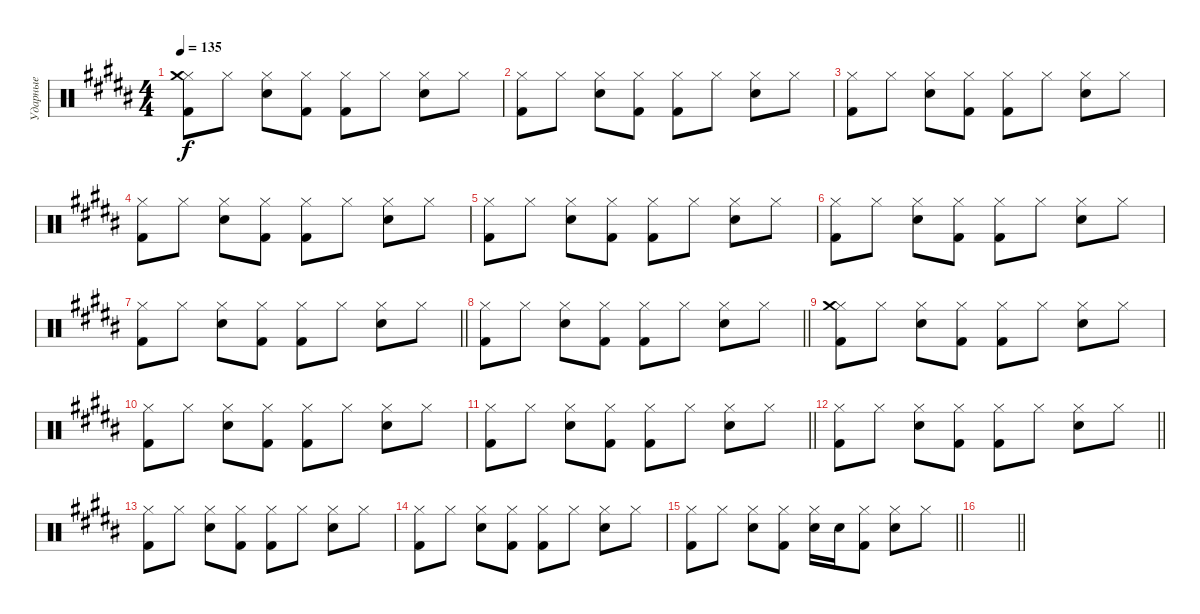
\track ("Ударные" "Ударные") {instrument percussion}
\staff {score}
\articulation defaults
\ts (4 4)
\tempo 135
\clef neutral
\ks g#minor
("Hi-Hat (closed)" "Crash medium (hit)" "Kick (hit) 2").8{dy f} "Hi-Hat (closed)".8 ("Hi-Hat (closed)" "Electric Snare (hit)").8 ("Hi-Hat (closed)" "Kick (hit) 2").8 ("Hi-Hat (closed)" "Kick (hit) 2").8 "Hi-Hat (closed)".8 ("Hi-Hat (closed)" "Electric Snare (hit)").8 "Hi-Hat (closed)".8 |
("Hi-Hat (closed)" "Kick (hit) 2").8 "Hi-Hat (closed)".8 ("Hi-Hat (closed)" "Electric Snare (hit)").8 ("Hi-Hat (closed)" "Kick (hit) 2").8 ("Hi-Hat (closed)" "Kick (hit) 2").8 "Hi-Hat (closed)".8 ("Hi-Hat (closed)" "Electric Snare (hit)").8 "Hi-Hat (closed)".8 |
("Hi-Hat (closed)" "Kick (hit) 2").8 "Hi-Hat (closed)".8 ("Hi-Hat (closed)" "Electric Snare (hit)").8 ("Hi-Hat (closed)" "Kick (hit) 2").8 ("Hi-Hat (closed)" "Kick (hit) 2").8 "Hi-Hat (closed)".8 ("Hi-Hat (closed)" "Electric Snare (hit)").8 "Hi-Hat (closed)".8 |
("Hi-Hat (closed)" "Kick (hit) 2").8 "Hi-Hat (closed)".8 ("Hi-Hat (closed)" "Electric Snare (hit)").8 ("Hi-Hat (closed)" "Kick (hit) 2").8 ("Hi-Hat (closed)" "Kick (hit) 2").8 "Hi-Hat (closed)".8 ("Hi-Hat (closed)" "Electric Snare (hit)").8 "Hi-Hat (closed)".8 |
("Hi-Hat (closed)" "Kick (hit) 2").8 "Hi-Hat (closed)".8 ("Hi-Hat (closed)" "Electric Snare (hit)").8 ("Hi-Hat (closed)" "Kick (hit) 2").8 ("Hi-Hat (closed)" "Kick (hit) 2").8 "Hi-Hat (closed)".8 ("Hi-Hat (closed)" "Electric Snare (hit)").8 "Hi-Hat (closed)".8 |
("Hi-Hat (closed)" "Kick (hit) 2").8 "Hi-Hat (closed)".8 ("Hi-Hat (closed)" "Electric Snare (hit)").8 ("Hi-Hat (closed)" "Kick (hit) 2").8 ("Hi-Hat (closed)" "Kick (hit) 2").8 "Hi-Hat (closed)".8 ("Hi-Hat (closed)" "Electric Snare (hit)").8 "Hi-Hat (closed)".8 |
\barLineRight lightlight
("Hi-Hat (closed)" "Kick (hit) 2").8 "Hi-Hat (closed)".8 ("Hi-Hat (closed)" "Electric Snare (hit)").8 ("Hi-Hat (closed)" "Kick (hit) 2").8 ("Hi-Hat (closed)" "Kick (hit) 2").8 "Hi-Hat (closed)".8 ("Hi-Hat (closed)" "Electric Snare (hit)").8 "Hi-Hat (closed)".8 |
\barLineRight lightlight
("Hi-Hat (closed)" "Kick (hit) 2").8 "Hi-Hat (closed)".8 ("Hi-Hat (closed)" "Electric Snare (hit)").8 ("Hi-Hat (closed)" "Kick (hit) 2").8 ("Hi-Hat (closed)" "Kick (hit) 2").8 "Hi-Hat (closed)".8 ("Hi-Hat (closed)" "Electric Snare (hit)").8 "Hi-Hat (closed)".8 |
\section ("" "")
("Hi-Hat (closed)" "Crash medium (hit)" "Kick (hit) 2").8 "Hi-Hat (closed)".8 ("Hi-Hat (closed)" "Electric Snare (hit)").8 ("Hi-Hat (closed)" "Kick (hit) 2").8 ("Hi-Hat (closed)" "Kick (hit) 2").8 "Hi-Hat (closed)".8 ("Hi-Hat (closed)" "Electric Snare (hit)").8 "Hi-Hat (closed)".8 |
("Hi-Hat (closed)" "Kick (hit) 2").8 "Hi-Hat (closed)".8 ("Hi-Hat (closed)" "Electric Snare (hit)").8 ("Hi-Hat (closed)" "Kick (hit) 2").8 ("Hi-Hat (closed)" "Kick (hit) 2").8 "Hi-Hat (closed)".8 ("Hi-Hat (closed)" "Electric Snare (hit)").8 "Hi-Hat (closed)".8 |
\barLineRight lightlight
("Hi-Hat (closed)" "Kick (hit) 2").8 "Hi-Hat (closed)".8 ("Hi-Hat (closed)" "Electric Snare (hit)").8 ("Hi-Hat (closed)" "Kick (hit) 2").8 ("Hi-Hat (closed)" "Kick (hit) 2").8 "Hi-Hat (closed)".8 ("Hi-Hat (closed)" "Electric Snare (hit)").8 "Hi-Hat (closed)".8 |
\barLineRight lightlight
("Hi-Hat (closed)" "Kick (hit) 2").8 "Hi-Hat (closed)".8 ("Hi-Hat (closed)" "Electric Snare (hit)").8 ("Hi-Hat (closed)" "Kick (hit) 2").8 ("Hi-Hat (closed)" "Kick (hit) 2").8 "Hi-Hat (closed)".8 ("Hi-Hat (closed)" "Electric Snare (hit)").8 "Hi-Hat (closed)".8 |
("Hi-Hat (closed)" "Kick (hit) 2").8 "Hi-Hat (closed)".8 ("Hi-Hat (closed)" "Electric Snare (hit)").8 ("Hi-Hat (closed)" "Kick (hit) 2").8 ("Hi-Hat (closed)" "Kick (hit) 2").8 "Hi-Hat (closed)".8 ("Hi-Hat (closed)" "Electric Snare (hit)").8 "Hi-Hat (closed)".8 |
("Hi-Hat (closed)" "Kick (hit) 2").8 "Hi-Hat (closed)".8 ("Hi-Hat (closed)" "Electric Snare (hit)").8 ("Hi-Hat (closed)" "Kick (hit) 2").8 ("Hi-Hat (closed)" "Kick (hit) 2").8 "Hi-Hat (closed)".8 ("Hi-Hat (closed)" "Electric Snare (hit)").8 "Hi-Hat (closed)".8 |
\barLineRight lightlight
("Hi-Hat (closed)" "Kick (hit) 2").8 "Hi-Hat (closed)".8 ("Hi-Hat (closed)" "Electric Snare (hit)").8 ("Hi-Hat (closed)" "Kick (hit) 2").8 ("Hi-Hat (closed)" "Electric Snare (hit)").16 "Electric Snare (hit)".16 ("Hi-Hat (closed)" "Kick (hit) 2").8 ("Hi-Hat (closed)" "Electric Snare (hit)").8 "Hi-Hat (closed)".8 |
\barLineRight lightlight
